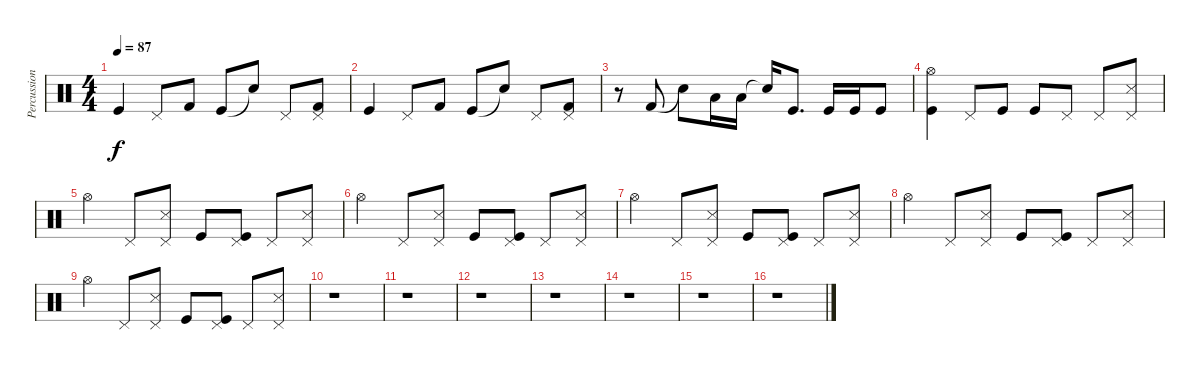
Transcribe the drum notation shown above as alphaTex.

\track ("Percussion" "Percussion") {instrument percussion}
\staff {score}
\articulation defaults
\ts (4 4)
\tempo 87
\clef neutral
\ks c "Kick (hit)".4{dy f} "Pedal Hi-Hat (hit)".8 "Kick (hit) 2".8 "Kick (hit)".8 "Snare (hit)"{t}.8 "Pedal Hi-Hat (hit)".8
("Pedal Hi-Hat (hit)" "Kick (hit) 2").8 |
"Kick (hit)".4 "Pedal Hi-Hat (hit)".8 "Kick (hit) 2".8 "Kick (hit)".8 "Snare (hit)"{t}.8 "Pedal Hi-Hat (hit)".8 ("Pedal Hi-Hat (hit)" "Kick (hit) 2").8 |
r.8 "Kick (hit) 2".8 "Snare (hit)"{t}.8 "Low Floor Tom (hit)".16 "Low Floor Tom (hit)".16 "Snare (hit)"{t}.16 "Kick (hit)".8{d} "Kick (hit)".16 "Kick (hit)".16 "Kick (hit)".8 |
("Hi-Hat (open)" "Kick (hit)").4 "Pedal Hi-Hat (hit)".8 "Kick (hit)".8 "Kick (hit)".8 "Pedal Hi-Hat (hit)".8 "Pedal Hi-Hat (hit)".8 ("Pedal Hi-Hat (hit)" "Metronome (hit)").8 |
"Hi-Hat (open)".4 "Pedal Hi-Hat (hit)".8 ("Pedal Hi-Hat (hit)" "Metronome (hit)").8 "Kick (hit)".8 ("Pedal Hi-Hat (hit)" "Kick (hit)").8 "Pedal Hi-Hat (hit)".8 ("Pedal Hi-Hat (hit)" "Metronome (hit)").8 |
"Hi-Hat (open)".4 "Pedal Hi-Hat (hit)".8 ("Pedal Hi-Hat (hit)" "Metronome (hit)").8 "Kick (hit)".8 ("Pedal Hi-Hat (hit)" "Kick (hit)").8 "Pedal Hi-Hat (hit)".8 ("Pedal Hi-Hat (hit)" "Metronome (hit)").8 |
"Hi-Hat (open)".4 "Pedal Hi-Hat (hit)".8 ("Pedal Hi-Hat (hit)" "Metronome (hit)").8 "Kick (hit)".8 ("Pedal Hi-Hat (hit)" "Kick (hit)").8 "Pedal Hi-Hat (hit)".8 ("Pedal Hi-Hat (hit)" "Metronome (hit)").8 |
"Hi-Hat (open)".4 "Pedal Hi-Hat (hit)".8 ("Pedal Hi-Hat (hit)" "Metronome (hit)").8 "Kick (hit)".8 ("Pedal Hi-Hat (hit)" "Kick (hit)").8 "Pedal Hi-Hat (hit)".8 ("Pedal Hi-Hat (hit)" "Metronome (hit)").8 |
"Hi-Hat (open)".4 "Pedal Hi-Hat (hit)".8 ("Pedal Hi-Hat (hit)" "Metronome (hit)").8 "Kick (hit)".8 ("Pedal Hi-Hat (hit)" "Kick (hit)").8 "Pedal Hi-Hat (hit)".8 ("Pedal Hi-Hat (hit)" "Metronome (hit)").8 |
r.1 |
r.1 |
r.1 |
r.1 |
r.1 |
r.1 |
r.1
